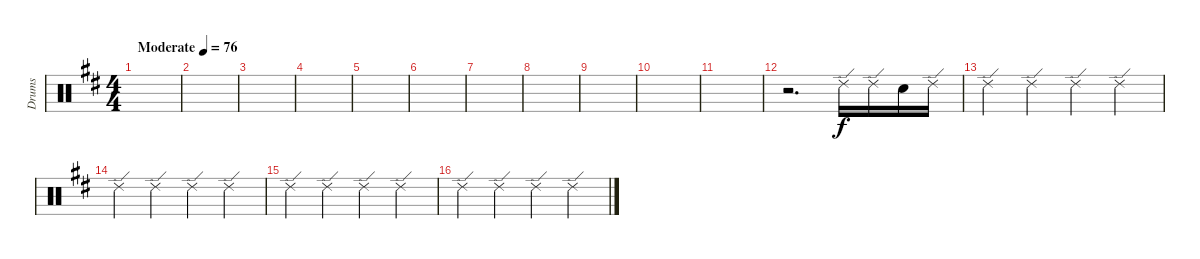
\track ("Drums" "Drums") {instrument percussion}
\staff {score}
\articulation defaults
\ts (4 4)
\tempo (76 "Moderate")
\clef neutral
\ks d
|
|
|
|
|
|
|
|
|
|
|
r.2{d} "Ride (edge) 2".16 "Ride (edge) 2".16 "Snare (hit) 2".16 "Ride (edge) 2".16 |
"Ride (edge) 2".4 "Ride (edge) 2".4 "Ride (edge) 2".4 "Ride (edge) 2".4 |
"Ride (edge) 2".4 "Ride (edge) 2".4 "Ride (edge) 2".4 "Ride (edge) 2".4 |
"Ride (edge) 2".4 "Ride (edge) 2".4 "Ride (edge) 2".4 "Ride (edge) 2".4 |
"Ride (edge) 2".4 "Ride (edge) 2".4 "Ride (edge) 2".4 "Ride (edge) 2".4
